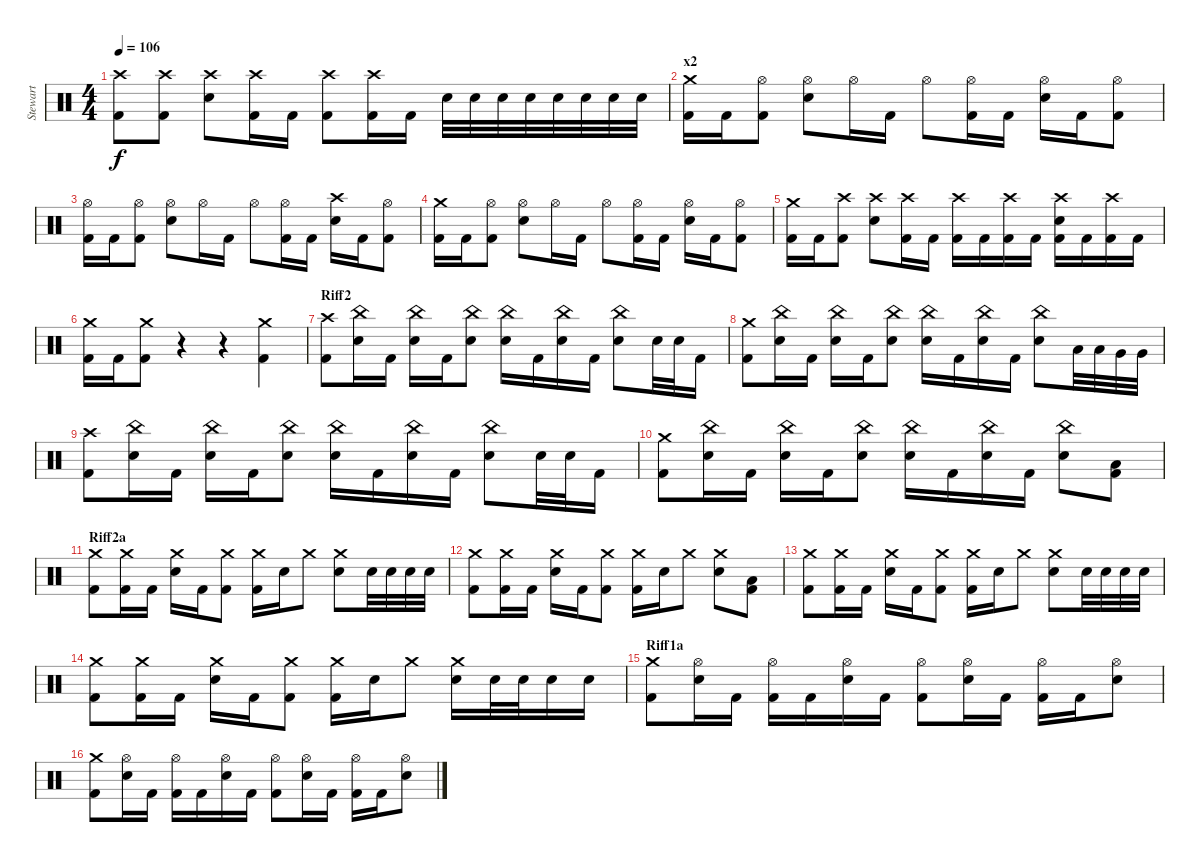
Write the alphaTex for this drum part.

\track ("Stewart" "Stewart") {instrument percussion}
\staff {score}
\articulation defaults
\ts (4 4)
\tempo 106
\clef neutral
\ks c
("Crash high (hit)" "Kick (hit) 2").8{dy f} ("Crash high (hit)" "Kick (hit) 2").8 ("Crash high (hit)" "Electric Snare (hit)").8 ("Crash high (hit)" "Kick (hit) 2").16 "Kick (hit) 2".16 ("Crash high (hit)" "Kick (hit) 2").8 ("Crash high (hit)" "Kick (hit) 2").16 "Kick (hit) 2".16 "Electric Snare (hit)".32 "Electric Snare (hit)".32 "Electric Snare (hit)".32 "Electric Snare (hit)".32 "Electric Snare (hit)".32 "Electric Snare (hit)".32 "Electric Snare (hit)".32 "Electric Snare (hit)".32 |
\section ("" "x2")
("Crash medium (hit)" "Kick (hit) 2").16 "Kick (hit) 2".16 ("Hi-Hat (open)" "Kick (hit) 2").8 ("Hi-Hat (open)" "Electric Snare (hit)").8 "Hi-Hat (open)".16 "Kick (hit) 2".16 "Hi-Hat (open)".8 ("Hi-Hat (open)" "Kick (hit) 2").16 "Kick (hit) 2".16 ("Hi-Hat (open)" "Electric Snare (hit)").16 "Kick (hit) 2".16 ("Hi-Hat (open)" "Kick (hit) 2").8 |
("Hi-Hat (open)" "Kick (hit) 2").16 "Kick (hit) 2".16 ("Hi-Hat (open)" "Kick (hit) 2").8 ("Hi-Hat (open)" "Electric Snare (hit)").8 "Hi-Hat (open)".16 "Kick (hit) 2".16 "Hi-Hat (open)".8 ("Hi-Hat (open)" "Kick (hit) 2").16 "Kick (hit) 2".16 ("Crash high (hit)" "Electric Snare (hit)").16 "Kick (hit) 2".16 ("Hi-Hat (open)" "Kick (hit) 2").8 |
("Crash medium (hit)" "Kick (hit) 2").16 "Kick (hit) 2".16 ("Hi-Hat (open)" "Kick (hit) 2").8 ("Hi-Hat (open)" "Electric Snare (hit)").8 "Hi-Hat (open)".16 "Kick (hit) 2".16 "Hi-Hat (open)".8 ("Hi-Hat (open)" "Kick (hit) 2").16 "Kick (hit) 2".16 ("Hi-Hat (open)" "Electric Snare (hit)").16 "Kick (hit) 2".16 ("Hi-Hat (open)" "Kick (hit) 2").8 |
("Crash medium (hit)" "Kick (hit) 2").16 "Kick (hit) 2".16 ("Crash high (hit)" "Kick (hit) 2").8 ("Crash high (hit)" "Electric Snare (hit)").8 ("Crash high (hit)" "Kick (hit) 2").16 "Kick (hit) 2".16 ("Crash high (hit)" "Kick (hit) 2").16 "Kick (hit) 2".16 ("Crash high (hit)" "Kick (hit) 2").16 "Kick (hit) 2".16 ("Crash high (hit)" "Electric Snare (hit)" "Kick (hit) 2").16 "Kick (hit) 2".16 ("Crash high (hit)" "Kick (hit) 2").16 "Kick (hit) 2".16 |
("Crash medium (hit)" "Kick (hit) 2").16 "Kick (hit) 2".16 ("Crash medium (hit)" "Kick (hit) 2").8 r.4 r.4 ("Crash medium (hit)" "Kick (hit) 2").4 |
\section ("" "Riff2")
("Crash high (hit)" "Kick (hit) 2").8 ("China (hit)" "Electric Snare (hit)").16 "Kick (hit) 2".16 ("China (hit)" "Electric Snare (hit)").16 "Kick (hit) 2".16 ("China (hit)" "Electric Snare (hit)").8 ("China (hit)" "Electric Snare (hit)").16 "Kick (hit) 2".16 ("China (hit)" "Electric Snare (hit)").16 "Kick (hit) 2".16 ("China (hit)" "Electric Snare (hit)").8 "Electric Snare (hit)".32 "Electric Snare (hit)".32 "Kick (hit) 2".16 |
("Crash medium (hit)" "Kick (hit) 2").8 ("China (hit)" "Electric Snare (hit)").16 "Kick (hit) 2".16 ("China (hit)" "Electric Snare (hit)").16 "Kick (hit) 2".16 ("China (hit)" "Electric Snare (hit)").8 ("China (hit)" "Electric Snare (hit)").16 "Kick (hit) 2".16 ("China (hit)" "Electric Snare (hit)").16 "Kick (hit) 2".16 ("China (hit)" "Electric Snare (hit)").8 "Low Tom (hit)".32 "Low Tom (hit)".32 "Very Low Tom (hit)".32 "Very Low Tom (hit)".32 |
("Crash high (hit)" "Kick (hit) 2").8 ("China (hit)" "Electric Snare (hit)").16 "Kick (hit) 2".16 ("China (hit)" "Electric Snare (hit)").16 "Kick (hit) 2".16 ("China (hit)" "Electric Snare (hit)").8 ("China (hit)" "Electric Snare (hit)").16 "Kick (hit) 2".16 ("China (hit)" "Electric Snare (hit)").16 "Kick (hit) 2".16 ("China (hit)" "Electric Snare (hit)").8 "Electric Snare (hit)".32 "Electric Snare (hit)".32 "Kick (hit) 2".16 |
("Crash medium (hit)" "Kick (hit) 2").8 ("China (hit)" "Electric Snare (hit)").16 "Kick (hit) 2".16 ("China (hit)" "Electric Snare (hit)").16 "Kick (hit) 2".16 ("China (hit)" "Electric Snare (hit)").8 ("China (hit)" "Electric Snare (hit)").16 "Kick (hit) 2".16 ("China (hit)" "Electric Snare (hit)").16 "Kick (hit) 2".16 ("China (hit)" "Electric Snare (hit)").8 ("Low Tom (hit)" "Kick (hit) 2").8 |
\section ("" "Riff2a")
("Crash medium (hit)" "Kick (hit) 2").8 ("Crash medium (hit)" "Kick (hit) 2").16 "Kick (hit) 2".16 ("Crash medium (hit)" "Electric Snare (hit)").16 "Kick (hit) 2".16 ("Crash medium (hit)" "Kick (hit) 2").8 ("Crash medium (hit)" "Kick (hit) 2").16 "Electric Snare (hit)".16 "Crash medium (hit)".8 ("Crash medium (hit)" "Electric Snare (hit)").8 "Electric Snare (hit)".32 "Electric Snare (hit)".32 "Electric Snare (hit)".32 "Electric Snare (hit)".32 |
("Crash medium (hit)" "Kick (hit) 2").8 ("Crash medium (hit)" "Kick (hit) 2").16 "Kick (hit) 2".16 ("Crash medium (hit)" "Electric Snare (hit)").16 "Kick (hit) 2".16 ("Crash medium (hit)" "Kick (hit) 2").8 ("Crash medium (hit)" "Kick (hit) 2").16 "Electric Snare (hit)".16 "Crash medium (hit)".8 ("Crash medium (hit)" "Electric Snare (hit)").8 ("Low Tom (hit)" "Kick (hit) 2").8 |
("Crash medium (hit)" "Kick (hit) 2").8 ("Crash medium (hit)" "Kick (hit) 2").16 "Kick (hit) 2".16 ("Crash medium (hit)" "Electric Snare (hit)").16 "Kick (hit) 2".16 ("Crash medium (hit)" "Kick (hit) 2").8 ("Crash medium (hit)" "Kick (hit) 2").16 "Electric Snare (hit)".16 "Crash medium (hit)".8 ("Crash medium (hit)" "Electric Snare (hit)").8 "Electric Snare (hit)".32 "Electric Snare (hit)".32 "Electric Snare (hit)".32 "Electric Snare (hit)".32 |
("Crash medium (hit)" "Kick (hit) 2").8 ("Crash medium (hit)" "Kick (hit) 2").16 "Kick (hit) 2".16 ("Crash medium (hit)" "Electric Snare (hit)").16 "Kick (hit) 2".16 ("Crash medium (hit)" "Kick (hit) 2").8 ("Crash medium (hit)" "Kick (hit) 2").16 "Electric Snare (hit)".16 "Crash medium (hit)".8 ("Crash medium (hit)" "Electric Snare (hit)").16 "Electric Snare (hit)".32 "Electric Snare (hit)".32 "Electric Snare (hit)".16 "Electric Snare (hit)".16 |
\section ("" "Riff1a")
("Crash medium (hit)" "Kick (hit) 2").8 ("Hi-Hat (open)" "Electric Snare (hit)").16 "Kick (hit) 2".16 ("Hi-Hat (open)" "Kick (hit) 2").16 "Kick (hit) 2".16 ("Hi-Hat (open)" "Electric Snare (hit)").16 "Kick (hit) 2".16 ("Hi-Hat (open)" "Kick (hit) 2").8 ("Hi-Hat (open)" "Electric Snare (hit)").16 "Kick (hit) 2".16 ("Hi-Hat (open)" "Kick (hit) 2").16 "Kick (hit) 2".16 ("Hi-Hat (open)" "Electric Snare (hit)").8 |
("Crash medium (hit)" "Kick (hit) 2").8 ("Hi-Hat (open)" "Electric Snare (hit)").16 "Kick (hit) 2".16 ("Hi-Hat (open)" "Kick (hit) 2").16 "Kick (hit) 2".16 ("Hi-Hat (open)" "Electric Snare (hit)").16 "Kick (hit) 2".16 ("Hi-Hat (open)" "Kick (hit) 2").8 ("Hi-Hat (open)" "Electric Snare (hit)").16 "Kick (hit) 2".16 ("Hi-Hat (open)" "Kick (hit) 2").16 "Kick (hit) 2".16 ("Hi-Hat (open)" "Electric Snare (hit)").8
